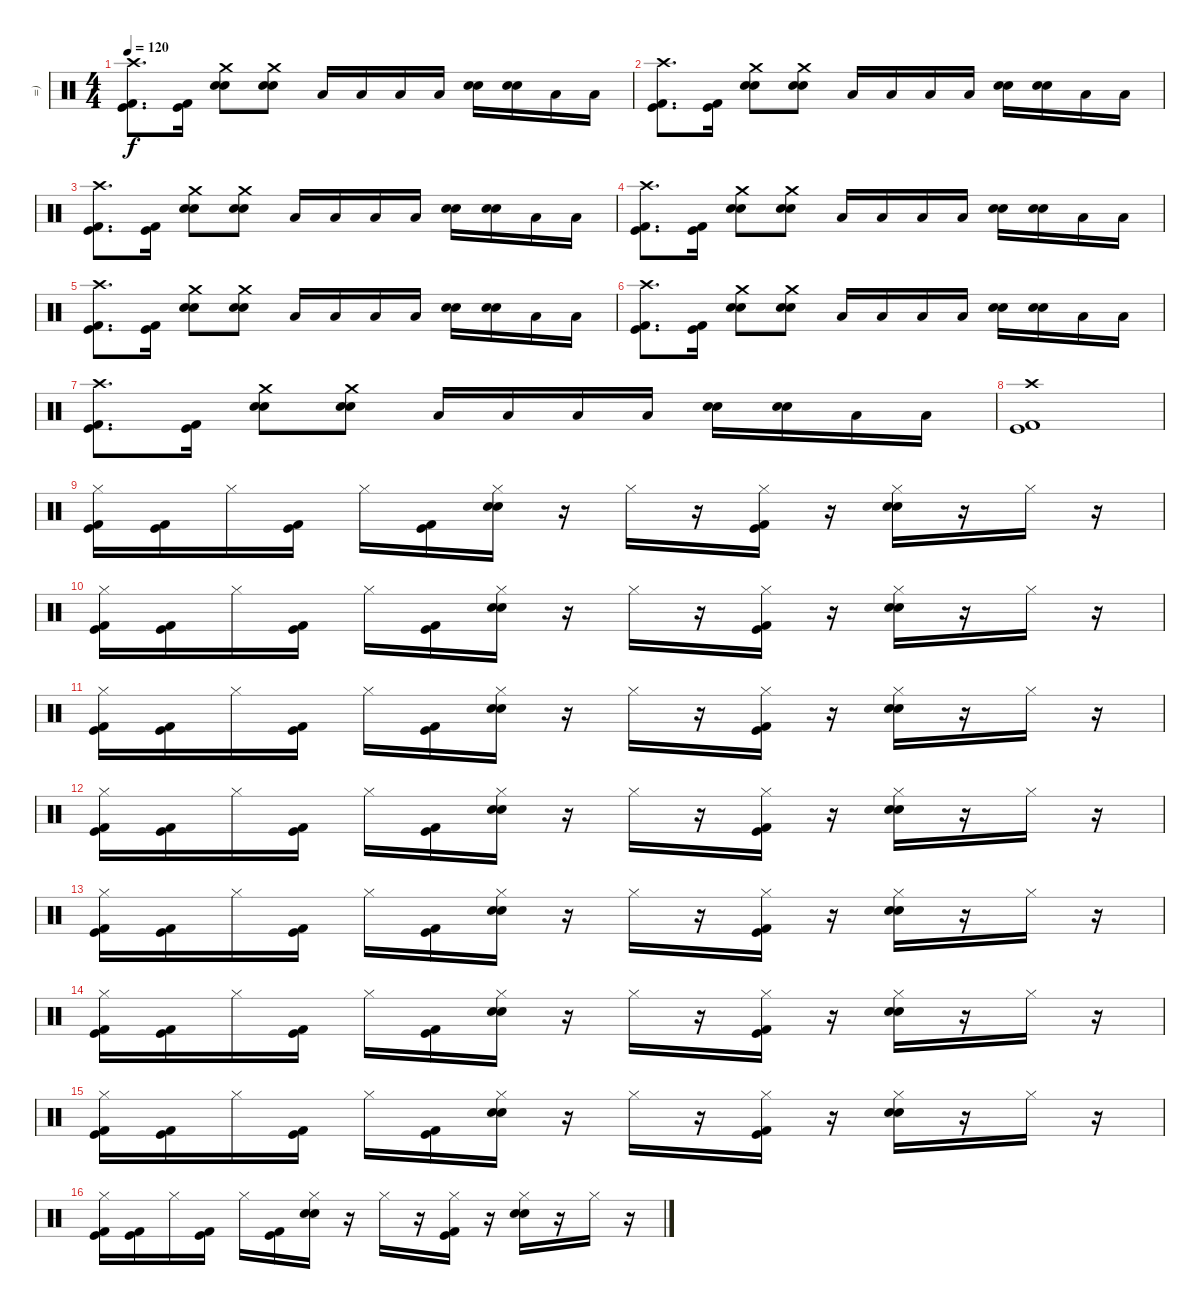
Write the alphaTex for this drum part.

\track ("=)" "=)") {instrument percussion}
\staff {score}
\articulation defaults
\ts (4 4)
\tempo 120
\clef neutral
\ks c
("Crash high (hit)" "Kick (hit)" "Kick (hit) 2").8{d dy f} ("Kick (hit)" "Kick (hit) 2").16 ("Crash medium (hit)" "Snare (hit) 2" "Electric Snare (hit)").8 ("Crash medium (hit)" "Snare (hit) 2" "Electric Snare (hit)").8 "Low Floor Tom (hit)".16 "Low Tom (hit)".16 "Low Floor Tom (hit)".16 "Low Floor Tom (hit)".16 ("Snare (hit) 2" "Electric Snare (hit)").16 ("Snare (hit) 2" "Electric Snare (hit)").16 "Low Floor Tom (hit)".16 "Low Tom (hit)".16 |
("Crash high (hit)" "Kick (hit)" "Kick (hit) 2").8{d} ("Kick (hit)" "Kick (hit) 2").16 ("Crash medium (hit)" "Snare (hit) 2" "Electric Snare (hit)").8 ("Crash medium (hit)" "Snare (hit) 2" "Electric Snare (hit)").8 "Low Floor Tom (hit)".16 "Low Tom (hit)".16 "Low Floor Tom (hit)".16 "Low Floor Tom (hit)".16 ("Snare (hit) 2" "Electric Snare (hit)").16 ("Snare (hit) 2" "Electric Snare (hit)").16 "Low Floor Tom (hit)".16 "Low Tom (hit)".16 |
("Crash high (hit)" "Kick (hit)" "Kick (hit) 2").8{d} ("Kick (hit)" "Kick (hit) 2").16 ("Crash medium (hit)" "Snare (hit) 2" "Electric Snare (hit)").8 ("Crash medium (hit)" "Snare (hit) 2" "Electric Snare (hit)").8 "Low Floor Tom (hit)".16 "Low Tom (hit)".16 "Low Floor Tom (hit)".16 "Low Floor Tom (hit)".16 ("Snare (hit) 2" "Electric Snare (hit)").16 ("Snare (hit) 2" "Electric Snare (hit)").16 "Low Floor Tom (hit)".16 "Low Tom (hit)".16 |
("Crash high (hit)" "Kick (hit)" "Kick (hit) 2").8{d} ("Kick (hit)" "Kick (hit) 2").16 ("Crash medium (hit)" "Snare (hit) 2" "Electric Snare (hit)").8 ("Crash medium (hit)" "Snare (hit) 2" "Electric Snare (hit)").8 "Low Floor Tom (hit)".16 "Low Tom (hit)".16 "Low Floor Tom (hit)".16 "Low Floor Tom (hit)".16 ("Snare (hit) 2" "Electric Snare (hit)").16 ("Snare (hit) 2" "Electric Snare (hit)").16 "Low Floor Tom (hit)".16 "Low Tom (hit)".16 |
("Crash high (hit)" "Kick (hit)" "Kick (hit) 2").8{d} ("Kick (hit)" "Kick (hit) 2").16 ("Crash medium (hit)" "Snare (hit) 2" "Electric Snare (hit)").8 ("Crash medium (hit)" "Snare (hit) 2" "Electric Snare (hit)").8 "Low Floor Tom (hit)".16 "Low Tom (hit)".16 "Low Floor Tom (hit)".16 "Low Floor Tom (hit)".16 ("Snare (hit) 2" "Electric Snare (hit)").16 ("Snare (hit) 2" "Electric Snare (hit)").16 "Low Floor Tom (hit)".16 "Low Tom (hit)".16 |
("Crash high (hit)" "Kick (hit)" "Kick (hit) 2").8{d} ("Kick (hit)" "Kick (hit) 2").16 ("Crash medium (hit)" "Snare (hit) 2" "Electric Snare (hit)").8 ("Crash medium (hit)" "Snare (hit) 2" "Electric Snare (hit)").8 "Low Floor Tom (hit)".16 "Low Tom (hit)".16 "Low Floor Tom (hit)".16 "Low Floor Tom (hit)".16 ("Snare (hit) 2" "Electric Snare (hit)").16 ("Snare (hit) 2" "Electric Snare (hit)").16 "Low Floor Tom (hit)".16 "Low Tom (hit)".16 |
("Crash high (hit)" "Kick (hit)" "Kick (hit) 2").8{d} ("Kick (hit)" "Kick (hit) 2").16 ("Crash medium (hit)" "Snare (hit) 2" "Electric Snare (hit)").8 ("Crash medium (hit)" "Snare (hit) 2" "Electric Snare (hit)").8 "Low Floor Tom (hit)".16 "Low Tom (hit)".16 "Low Floor Tom (hit)".16 "Low Floor Tom (hit)".16 ("Snare (hit) 2" "Electric Snare (hit)").16 ("Snare (hit) 2" "Electric Snare (hit)").16 "Low Floor Tom (hit)".16 "Low Tom (hit)".16 |
("Crash high (hit)" "Kick (hit)" "Kick (hit) 2").1 |
("Hi-Hat (closed)" "Kick (hit)" "Kick (hit) 2").16 ("Kick (hit)" "Kick (hit) 2").16 "Hi-Hat (closed)".16 ("Kick (hit)" "Kick (hit) 2").16 "Hi-Hat (closed)".16 ("Kick (hit)" "Kick (hit) 2").16 ("Hi-Hat (closed)" "Snare (hit) 2" "Electric Snare (hit)").16 r.16 "Hi-Hat (closed)".16 r.16 ("Hi-Hat (closed)" "Kick (hit)" "Kick (hit) 2").16 r.16 ("Hi-Hat (closed)" "Snare (hit) 2" "Electric Snare (hit)").16 r.16 "Hi-Hat (closed)".16 r.16 |
("Hi-Hat (closed)" "Kick (hit)" "Kick (hit) 2").16 ("Kick (hit)" "Kick (hit) 2").16 "Hi-Hat (closed)".16 ("Kick (hit)" "Kick (hit) 2").16 "Hi-Hat (closed)".16 ("Kick (hit)" "Kick (hit) 2").16 ("Hi-Hat (closed)" "Snare (hit) 2" "Electric Snare (hit)").16 r.16 "Hi-Hat (closed)".16 r.16 ("Hi-Hat (closed)" "Kick (hit)" "Kick (hit) 2").16 r.16 ("Hi-Hat (closed)" "Snare (hit) 2" "Electric Snare (hit)").16 r.16 "Hi-Hat (closed)".16 r.16 |
("Hi-Hat (closed)" "Kick (hit)" "Kick (hit) 2").16 ("Kick (hit)" "Kick (hit) 2").16 "Hi-Hat (closed)".16 ("Kick (hit)" "Kick (hit) 2").16 "Hi-Hat (closed)".16 ("Kick (hit)" "Kick (hit) 2").16 ("Hi-Hat (closed)" "Snare (hit) 2" "Electric Snare (hit)").16 r.16 "Hi-Hat (closed)".16 r.16 ("Hi-Hat (closed)" "Kick (hit)" "Kick (hit) 2").16 r.16 ("Hi-Hat (closed)" "Snare (hit) 2" "Electric Snare (hit)").16 r.16 "Hi-Hat (closed)".16 r.16 |
("Hi-Hat (closed)" "Kick (hit)" "Kick (hit) 2").16 ("Kick (hit)" "Kick (hit) 2").16 "Hi-Hat (closed)".16 ("Kick (hit)" "Kick (hit) 2").16 "Hi-Hat (closed)".16 ("Kick (hit)" "Kick (hit) 2").16 ("Hi-Hat (closed)" "Snare (hit) 2" "Electric Snare (hit)").16 r.16 "Hi-Hat (closed)".16 r.16 ("Hi-Hat (closed)" "Kick (hit)" "Kick (hit) 2").16 r.16 ("Hi-Hat (closed)" "Snare (hit) 2" "Electric Snare (hit)").16 r.16 "Hi-Hat (closed)".16 r.16 |
("Hi-Hat (closed)" "Kick (hit)" "Kick (hit) 2").16 ("Kick (hit)" "Kick (hit) 2").16 "Hi-Hat (closed)".16 ("Kick (hit)" "Kick (hit) 2").16 "Hi-Hat (closed)".16 ("Kick (hit)" "Kick (hit) 2").16 ("Hi-Hat (closed)" "Snare (hit) 2" "Electric Snare (hit)").16 r.16 "Hi-Hat (closed)".16 r.16 ("Hi-Hat (closed)" "Kick (hit)" "Kick (hit) 2").16 r.16 ("Hi-Hat (closed)" "Snare (hit) 2" "Electric Snare (hit)").16 r.16 "Hi-Hat (closed)".16 r.16 |
("Hi-Hat (closed)" "Kick (hit)" "Kick (hit) 2").16 ("Kick (hit)" "Kick (hit) 2").16 "Hi-Hat (closed)".16 ("Kick (hit)" "Kick (hit) 2").16 "Hi-Hat (closed)".16 ("Kick (hit)" "Kick (hit) 2").16 ("Hi-Hat (closed)" "Snare (hit) 2" "Electric Snare (hit)").16 r.16 "Hi-Hat (closed)".16 r.16 ("Hi-Hat (closed)" "Kick (hit)" "Kick (hit) 2").16 r.16 ("Hi-Hat (closed)" "Snare (hit) 2" "Electric Snare (hit)").16 r.16 "Hi-Hat (closed)".16 r.16 |
("Hi-Hat (closed)" "Kick (hit)" "Kick (hit) 2").16 ("Kick (hit)" "Kick (hit) 2").16 "Hi-Hat (closed)".16 ("Kick (hit)" "Kick (hit) 2").16 "Hi-Hat (closed)".16 ("Kick (hit)" "Kick (hit) 2").16 ("Hi-Hat (closed)" "Snare (hit) 2" "Electric Snare (hit)").16 r.16 "Hi-Hat (closed)".16 r.16 ("Hi-Hat (closed)" "Kick (hit)" "Kick (hit) 2").16 r.16 ("Hi-Hat (closed)" "Snare (hit) 2" "Electric Snare (hit)").16 r.16 "Hi-Hat (closed)".16 r.16 |
("Hi-Hat (closed)" "Kick (hit)" "Kick (hit) 2").16 ("Kick (hit)" "Kick (hit) 2").16 "Hi-Hat (closed)".16 ("Kick (hit)" "Kick (hit) 2").16 "Hi-Hat (closed)".16 ("Kick (hit)" "Kick (hit) 2").16 ("Hi-Hat (closed)" "Snare (hit) 2" "Electric Snare (hit)").16 r.16 "Hi-Hat (closed)".16 r.16 ("Hi-Hat (closed)" "Kick (hit)" "Kick (hit) 2").16 r.16 ("Hi-Hat (closed)" "Snare (hit) 2" "Electric Snare (hit)").16 r.16 "Hi-Hat (closed)".16 r.16
